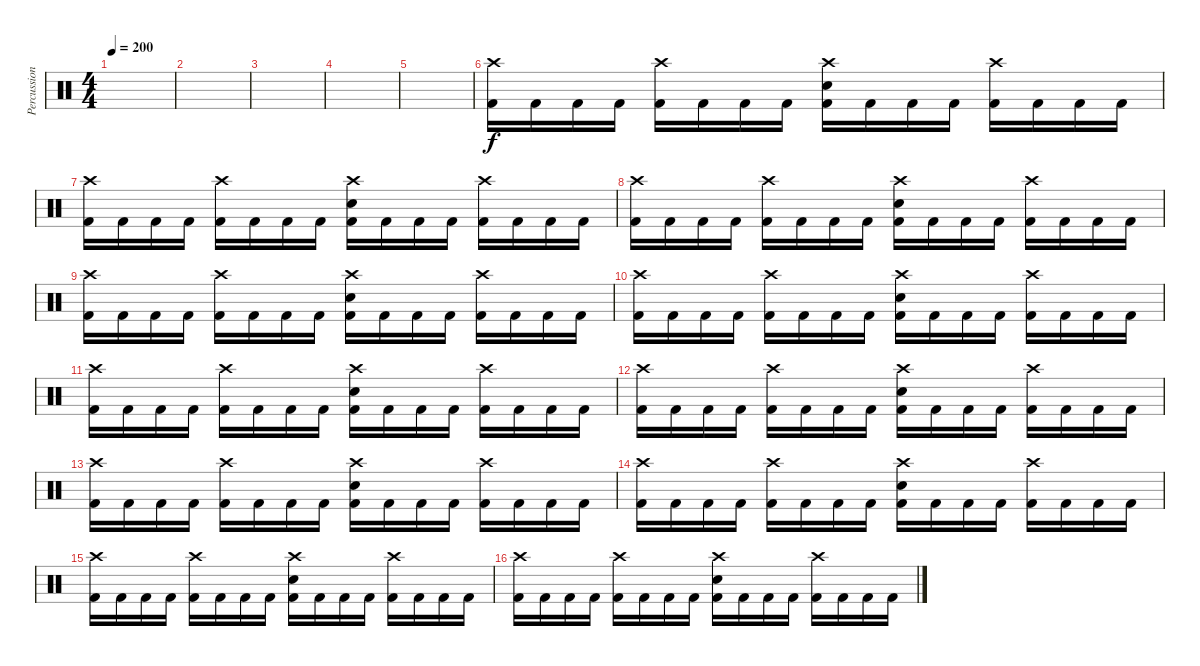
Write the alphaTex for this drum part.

\track ("Percussion" "Percussion") {instrument percussion}
\staff {score}
\articulation defaults
\ts (4 4)
\tempo 200
\clef neutral
\ks c
|
|
|
|
|
("Crash high (hit)" "Kick (hit) 2").16 "Kick (hit) 2".16 "Kick (hit) 2".16 "Kick (hit) 2".16 ("Crash high (hit)" "Kick (hit) 2").16 "Kick (hit) 2".16 "Kick (hit) 2".16 "Kick (hit) 2".16 ("Crash high (hit)" "Kick (hit) 2" "Snare (hit) 2").16 "Kick (hit) 2".16 "Kick (hit) 2".16 "Kick (hit) 2".16 ("Crash high (hit)" "Kick (hit) 2").16 "Kick (hit) 2".16 "Kick (hit) 2".16 "Kick (hit) 2".16 |
("Crash high (hit)" "Kick (hit) 2").16 "Kick (hit) 2".16 "Kick (hit) 2".16 "Kick (hit) 2".16 ("Crash high (hit)" "Kick (hit) 2").16 "Kick (hit) 2".16 "Kick (hit) 2".16 "Kick (hit) 2".16 ("Crash high (hit)" "Kick (hit) 2" "Snare (hit) 2").16 "Kick (hit) 2".16 "Kick (hit) 2".16 "Kick (hit) 2".16 ("Crash high (hit)" "Kick (hit) 2").16 "Kick (hit) 2".16 "Kick (hit) 2".16 "Kick (hit) 2".16 |
("Crash high (hit)" "Kick (hit) 2").16 "Kick (hit) 2".16 "Kick (hit) 2".16 "Kick (hit) 2".16 ("Crash high (hit)" "Kick (hit) 2").16 "Kick (hit) 2".16 "Kick (hit) 2".16 "Kick (hit) 2".16 ("Crash high (hit)" "Kick (hit) 2" "Snare (hit) 2").16 "Kick (hit) 2".16 "Kick (hit) 2".16 "Kick (hit) 2".16 ("Crash high (hit)" "Kick (hit) 2").16 "Kick (hit) 2".16 "Kick (hit) 2".16 "Kick (hit) 2".16 |
("Crash high (hit)" "Kick (hit) 2").16 "Kick (hit) 2".16 "Kick (hit) 2".16 "Kick (hit) 2".16 ("Crash high (hit)" "Kick (hit) 2").16 "Kick (hit) 2".16 "Kick (hit) 2".16 "Kick (hit) 2".16 ("Crash high (hit)" "Kick (hit) 2" "Snare (hit) 2").16 "Kick (hit) 2".16 "Kick (hit) 2".16 "Kick (hit) 2".16 ("Crash high (hit)" "Kick (hit) 2").16 "Kick (hit) 2".16 "Kick (hit) 2".16 "Kick (hit) 2".16 |
("Crash high (hit)" "Kick (hit) 2").16 "Kick (hit) 2".16 "Kick (hit) 2".16 "Kick (hit) 2".16 ("Crash high (hit)" "Kick (hit) 2").16 "Kick (hit) 2".16 "Kick (hit) 2".16 "Kick (hit) 2".16 ("Crash high (hit)" "Kick (hit) 2" "Snare (hit) 2").16 "Kick (hit) 2".16 "Kick (hit) 2".16 "Kick (hit) 2".16 ("Crash high (hit)" "Kick (hit) 2").16 "Kick (hit) 2".16 "Kick (hit) 2".16 "Kick (hit) 2".16 |
("Crash high (hit)" "Kick (hit) 2").16 "Kick (hit) 2".16 "Kick (hit) 2".16 "Kick (hit) 2".16 ("Crash high (hit)" "Kick (hit) 2").16 "Kick (hit) 2".16 "Kick (hit) 2".16 "Kick (hit) 2".16 ("Crash high (hit)" "Kick (hit) 2" "Snare (hit) 2").16 "Kick (hit) 2".16 "Kick (hit) 2".16 "Kick (hit) 2".16 ("Crash high (hit)" "Kick (hit) 2").16 "Kick (hit) 2".16 "Kick (hit) 2".16 "Kick (hit) 2".16 |
("Crash high (hit)" "Kick (hit) 2").16 "Kick (hit) 2".16 "Kick (hit) 2".16 "Kick (hit) 2".16 ("Crash high (hit)" "Kick (hit) 2").16 "Kick (hit) 2".16 "Kick (hit) 2".16 "Kick (hit) 2".16 ("Crash high (hit)" "Kick (hit) 2" "Snare (hit) 2").16 "Kick (hit) 2".16 "Kick (hit) 2".16 "Kick (hit) 2".16 ("Crash high (hit)" "Kick (hit) 2").16 "Kick (hit) 2".16 "Kick (hit) 2".16 "Kick (hit) 2".16 |
("Crash high (hit)" "Kick (hit) 2").16 "Kick (hit) 2".16 "Kick (hit) 2".16 "Kick (hit) 2".16 ("Crash high (hit)" "Kick (hit) 2").16 "Kick (hit) 2".16 "Kick (hit) 2".16 "Kick (hit) 2".16 ("Crash high (hit)" "Kick (hit) 2" "Snare (hit) 2").16 "Kick (hit) 2".16 "Kick (hit) 2".16 "Kick (hit) 2".16 ("Crash high (hit)" "Kick (hit) 2").16 "Kick (hit) 2".16 "Kick (hit) 2".16 "Kick (hit) 2".16 |
("Crash high (hit)" "Kick (hit) 2").16 "Kick (hit) 2".16 "Kick (hit) 2".16 "Kick (hit) 2".16 ("Crash high (hit)" "Kick (hit) 2").16 "Kick (hit) 2".16 "Kick (hit) 2".16 "Kick (hit) 2".16 ("Crash high (hit)" "Kick (hit) 2" "Snare (hit) 2").16 "Kick (hit) 2".16 "Kick (hit) 2".16 "Kick (hit) 2".16 ("Crash high (hit)" "Kick (hit) 2").16 "Kick (hit) 2".16 "Kick (hit) 2".16 "Kick (hit) 2".16 |
("Crash high (hit)" "Kick (hit) 2").16 "Kick (hit) 2".16 "Kick (hit) 2".16 "Kick (hit) 2".16 ("Crash high (hit)" "Kick (hit) 2").16 "Kick (hit) 2".16 "Kick (hit) 2".16 "Kick (hit) 2".16 ("Crash high (hit)" "Kick (hit) 2" "Snare (hit) 2").16 "Kick (hit) 2".16 "Kick (hit) 2".16 "Kick (hit) 2".16 ("Crash high (hit)" "Kick (hit) 2").16 "Kick (hit) 2".16 "Kick (hit) 2".16 "Kick (hit) 2".16 |
("Crash high (hit)" "Kick (hit) 2").16 "Kick (hit) 2".16 "Kick (hit) 2".16 "Kick (hit) 2".16 ("Crash high (hit)" "Kick (hit) 2").16 "Kick (hit) 2".16 "Kick (hit) 2".16 "Kick (hit) 2".16 ("Crash high (hit)" "Kick (hit) 2" "Snare (hit) 2").16 "Kick (hit) 2".16 "Kick (hit) 2".16 "Kick (hit) 2".16 ("Crash high (hit)" "Kick (hit) 2").16 "Kick (hit) 2".16 "Kick (hit) 2".16 "Kick (hit) 2".16
